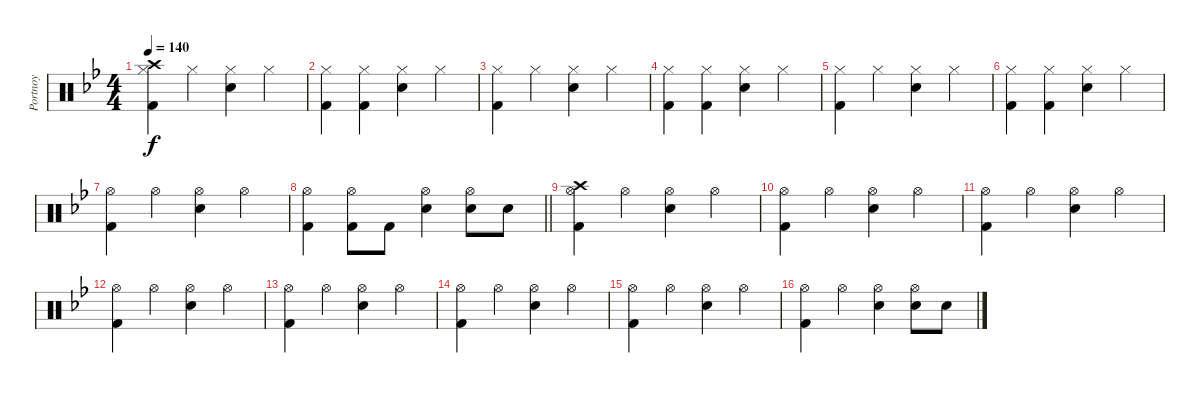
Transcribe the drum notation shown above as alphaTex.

\track ("Portnoy" "Portnoy") {instrument percussion}
\staff {score}
\articulation defaults
\ts (4 4)
\tempo 140
\clef neutral
\ks bb
("Crash high (hit)" "Hi-Hat (closed)" "Kick (hit) 2").4{dy f} "Hi-Hat (closed)".4 ("Hi-Hat (closed)" "Snare (hit) 2").4 "Hi-Hat (closed)".4 |
("Hi-Hat (closed)" "Kick (hit) 2").4 ("Hi-Hat (closed)" "Kick (hit) 2").4 ("Hi-Hat (closed)" "Snare (hit) 2").4 "Hi-Hat (closed)".4 |
("Hi-Hat (closed)" "Kick (hit) 2").4 "Hi-Hat (closed)".4 ("Hi-Hat (closed)" "Snare (hit) 2").4 "Hi-Hat (closed)".4 |
("Hi-Hat (closed)" "Kick (hit) 2").4 ("Hi-Hat (closed)" "Kick (hit) 2").4 ("Hi-Hat (closed)" "Snare (hit) 2").4 "Hi-Hat (closed)".4 |
("Hi-Hat (closed)" "Kick (hit) 2").4 "Hi-Hat (closed)".4 ("Hi-Hat (closed)" "Snare (hit) 2").4 "Hi-Hat (closed)".4 |
("Hi-Hat (closed)" "Kick (hit) 2").4 ("Hi-Hat (closed)" "Kick (hit) 2").4 ("Hi-Hat (closed)" "Snare (hit) 2").4 "Hi-Hat (closed)".4 |
("Hi-Hat (open)" "Kick (hit) 2").4 "Hi-Hat (open)".4 ("Hi-Hat (open)" "Snare (hit) 2").4 "Hi-Hat (open)".4 |
\barLineRight lightlight
("Hi-Hat (open)" "Kick (hit) 2").4 ("Hi-Hat (open)" "Kick (hit) 2").8 "Kick (hit) 2".8 ("Hi-Hat (open)" "Snare (hit) 2").4 ("Hi-Hat (open)" "Snare (hit) 2").8 "Snare (hit) 2".8 |
("Crash high (hit)" "Hi-Hat (open)" "Kick (hit) 2").4 "Hi-Hat (open)".4 ("Hi-Hat (open)" "Snare (hit) 2").4 "Hi-Hat (open)".4 |
("Hi-Hat (open)" "Kick (hit) 2").4 "Hi-Hat (open)".4 ("Hi-Hat (open)" "Snare (hit) 2").4 "Hi-Hat (open)".4 |
("Hi-Hat (open)" "Kick (hit) 2").4 "Hi-Hat (open)".4 ("Hi-Hat (open)" "Snare (hit) 2").4 "Hi-Hat (open)".4 |
("Hi-Hat (open)" "Kick (hit) 2").4 "Hi-Hat (open)".4 ("Hi-Hat (open)" "Snare (hit) 2").4 "Hi-Hat (open)".4 |
("Hi-Hat (open)" "Kick (hit) 2").4 "Hi-Hat (open)".4 ("Hi-Hat (open)" "Snare (hit) 2").4 "Hi-Hat (open)".4 |
("Hi-Hat (open)" "Kick (hit) 2").4 "Hi-Hat (open)".4 ("Hi-Hat (open)" "Snare (hit) 2").4 "Hi-Hat (open)".4 |
("Hi-Hat (open)" "Kick (hit) 2").4 "Hi-Hat (open)".4 ("Hi-Hat (open)" "Snare (hit) 2").4 "Hi-Hat (open)".4 |
("Hi-Hat (open)" "Kick (hit) 2").4 "Hi-Hat (open)".4 ("Hi-Hat (open)" "Snare (hit) 2").4 ("Hi-Hat (open)" "Snare (hit) 2").8 "Snare (hit) 2".8
